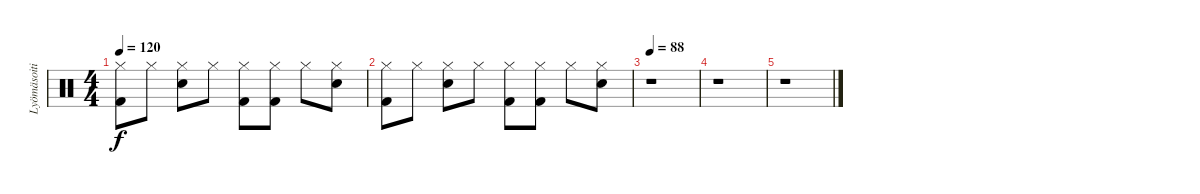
\track ("Lyömäsoitin" "Lyömäsoiti") {instrument percussion}
\staff {score}
\articulation defaults
\ts (4 4)
\tempo 120
\clef neutral
\ks c
("Hi-Hat (closed)" "Kick (hit) 2").8{dy f} "Hi-Hat (closed)".8 ("Hi-Hat (closed)" "Snare (hit) 2").8 "Hi-Hat (closed)".8 ("Hi-Hat (closed)" "Kick (hit) 2").8 ("Hi-Hat (closed)" "Kick (hit) 2").8 "Hi-Hat (closed)".8 ("Hi-Hat (closed)" "Snare (hit) 2").8 |
("Hi-Hat (closed)" "Kick (hit) 2").8 "Hi-Hat (closed)".8 ("Hi-Hat (closed)" "Snare (hit) 2").8 "Hi-Hat (closed)".8 ("Hi-Hat (closed)" "Kick (hit) 2").8 ("Hi-Hat (closed)" "Kick (hit) 2").8 "Hi-Hat (closed)".8 ("Hi-Hat (closed)" "Snare (hit) 2").8 |
\tempo 88
r.1 |
r.1 |
r.1
